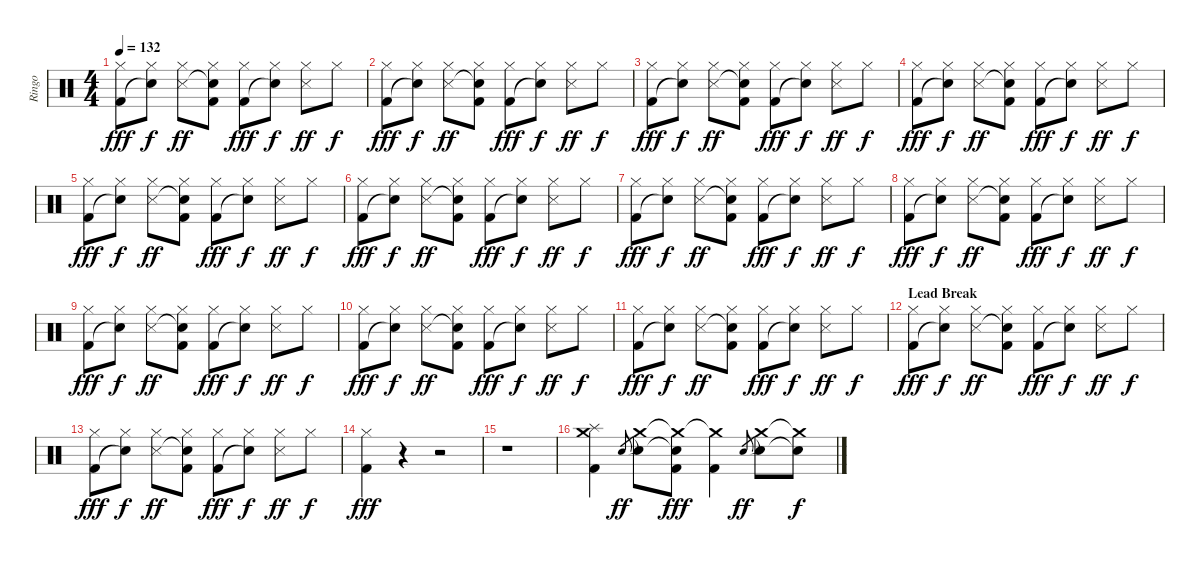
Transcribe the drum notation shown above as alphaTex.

\track ("Ringo" "Ringo") {instrument percussion}
\staff {score}
\articulation defaults
\ts (4 4)
\tempo 132
\clef neutral
\ks c
("Hi-Hat (closed)" "Kick (hit) 2").8{dy fff} ("Hi-Hat (closed)" "Snare (hit)"{t}).8{dy f} ("Hi-Hat (closed)" "Snare (side stick) 3").8{dy ff} ("Hi-Hat (closed)" "Snare (hit)"{t} "Kick (hit) 2").8 ("Hi-Hat (closed)" "Kick (hit) 2").8{dy fff} ("Hi-Hat (closed)" "Snare (hit)"{t}).8{dy f} ("Hi-Hat (closed)" "Snare (side stick) 3").8{dy ff} "Hi-Hat (closed)".8{dy f} |
("Hi-Hat (closed)" "Kick (hit) 2").8{dy fff} ("Hi-Hat (closed)" "Snare (hit)"{t}).8{dy f} ("Hi-Hat (closed)" "Snare (side stick) 3").8{dy ff} ("Hi-Hat (closed)" "Snare (hit)"{t} "Kick (hit) 2").8 ("Hi-Hat (closed)" "Kick (hit) 2").8{dy fff} ("Hi-Hat (closed)" "Snare (hit)"{t}).8{dy f} ("Hi-Hat (closed)" "Snare (side stick) 3").8{dy ff} "Hi-Hat (closed)".8{dy f} |
("Hi-Hat (closed)" "Kick (hit) 2").8{dy fff} ("Hi-Hat (closed)" "Snare (hit)"{t}).8{dy f} ("Hi-Hat (closed)" "Snare (side stick) 3").8{dy ff} ("Hi-Hat (closed)" "Snare (hit)"{t} "Kick (hit) 2").8 ("Hi-Hat (closed)" "Kick (hit) 2").8{dy fff} ("Hi-Hat (closed)" "Snare (hit)"{t}).8{dy f} ("Hi-Hat (closed)" "Snare (side stick) 3").8{dy ff} "Hi-Hat (closed)".8{dy f} |
("Hi-Hat (closed)" "Kick (hit) 2").8{dy fff} ("Hi-Hat (closed)" "Snare (hit)"{t}).8{dy f} ("Hi-Hat (closed)" "Snare (side stick) 3").8{dy ff} ("Hi-Hat (closed)" "Snare (hit)"{t} "Kick (hit) 2").8 ("Hi-Hat (closed)" "Kick (hit) 2").8{dy fff} ("Hi-Hat (closed)" "Snare (hit)"{t}).8{dy f} ("Hi-Hat (closed)" "Snare (side stick) 3").8{dy ff} "Hi-Hat (closed)".8{dy f} |
("Hi-Hat (closed)" "Kick (hit) 2").8{dy fff} ("Hi-Hat (closed)" "Snare (hit)"{t}).8{dy f} ("Hi-Hat (closed)" "Snare (side stick) 3").8{dy ff} ("Hi-Hat (closed)" "Snare (hit)"{t} "Kick (hit) 2").8 ("Hi-Hat (closed)" "Kick (hit) 2").8{dy fff} ("Hi-Hat (closed)" "Snare (hit)"{t}).8{dy f} ("Hi-Hat (closed)" "Snare (side stick) 3").8{dy ff} "Hi-Hat (closed)".8{dy f} |
("Hi-Hat (closed)" "Kick (hit) 2").8{dy fff} ("Hi-Hat (closed)" "Snare (hit)"{t}).8{dy f} ("Hi-Hat (closed)" "Snare (side stick) 3").8{dy ff} ("Hi-Hat (closed)" "Snare (hit)"{t} "Kick (hit) 2").8 ("Hi-Hat (closed)" "Kick (hit) 2").8{dy fff} ("Hi-Hat (closed)" "Snare (hit)"{t}).8{dy f} ("Hi-Hat (closed)" "Snare (side stick) 3").8{dy ff} "Hi-Hat (closed)".8{dy f} |
("Hi-Hat (closed)" "Kick (hit) 2").8{dy fff} ("Hi-Hat (closed)" "Snare (hit)"{t}).8{dy f} ("Hi-Hat (closed)" "Snare (side stick) 3").8{dy ff} ("Hi-Hat (closed)" "Snare (hit)"{t} "Kick (hit) 2").8 ("Hi-Hat (closed)" "Kick (hit) 2").8{dy fff} ("Hi-Hat (closed)" "Snare (hit)"{t}).8{dy f} ("Hi-Hat (closed)" "Snare (side stick) 3").8{dy ff} "Hi-Hat (closed)".8{dy f} |
("Hi-Hat (closed)" "Kick (hit) 2").8{dy fff} ("Hi-Hat (closed)" "Snare (hit)"{t}).8{dy f} ("Hi-Hat (closed)" "Snare (side stick) 3").8{dy ff} ("Hi-Hat (closed)" "Snare (hit)"{t} "Kick (hit) 2").8 ("Hi-Hat (closed)" "Kick (hit) 2").8{dy fff} ("Hi-Hat (closed)" "Snare (hit)"{t}).8{dy f} ("Hi-Hat (closed)" "Snare (side stick) 3").8{dy ff} "Hi-Hat (closed)".8{dy f} |
("Hi-Hat (closed)" "Kick (hit) 2").8{dy fff} ("Hi-Hat (closed)" "Snare (hit)"{t}).8{dy f} ("Hi-Hat (closed)" "Snare (side stick) 3").8{dy ff} ("Hi-Hat (closed)" "Snare (hit)"{t} "Kick (hit) 2").8 ("Hi-Hat (closed)" "Kick (hit) 2").8{dy fff} ("Hi-Hat (closed)" "Snare (hit)"{t}).8{dy f} ("Hi-Hat (closed)" "Snare (side stick) 3").8{dy ff} "Hi-Hat (closed)".8{dy f} |
("Hi-Hat (closed)" "Kick (hit) 2").8{dy fff} ("Hi-Hat (closed)" "Snare (hit)"{t}).8{dy f} ("Hi-Hat (closed)" "Snare (side stick) 3").8{dy ff} ("Hi-Hat (closed)" "Snare (hit)"{t} "Kick (hit) 2").8 ("Hi-Hat (closed)" "Kick (hit) 2").8{dy fff} ("Hi-Hat (closed)" "Snare (hit)"{t}).8{dy f} ("Hi-Hat (closed)" "Snare (side stick) 3").8{dy ff} "Hi-Hat (closed)".8{dy f} |
("Hi-Hat (closed)" "Kick (hit) 2").8{dy fff} ("Hi-Hat (closed)" "Snare (hit)"{t}).8{dy f} ("Hi-Hat (closed)" "Snare (side stick) 3").8{dy ff} ("Hi-Hat (closed)" "Snare (hit)"{t} "Kick (hit) 2").8 ("Hi-Hat (closed)" "Kick (hit) 2").8{dy fff} ("Hi-Hat (closed)" "Snare (hit)"{t}).8{dy f} ("Hi-Hat (closed)" "Snare (side stick) 3").8{dy ff} "Hi-Hat (closed)".8{dy f} |
\section ("" "Lead Break")
("Hi-Hat (closed)" "Kick (hit) 2").8{dy fff} ("Hi-Hat (closed)" "Snare (hit)"{t}).8{dy f} ("Hi-Hat (closed)" "Snare (side stick) 3").8{dy ff} ("Hi-Hat (closed)" "Snare (hit)"{t} "Kick (hit) 2").8 ("Hi-Hat (closed)" "Kick (hit) 2").8{dy fff} ("Hi-Hat (closed)" "Snare (hit)"{t}).8{dy f} ("Hi-Hat (closed)" "Snare (side stick) 3").8{dy ff} "Hi-Hat (closed)".8{dy f} |
("Hi-Hat (closed)" "Kick (hit) 2").8{dy fff} ("Hi-Hat (closed)" "Snare (hit)"{t}).8{dy f} ("Hi-Hat (closed)" "Snare (side stick) 3").8{dy ff} ("Hi-Hat (closed)" "Snare (hit)"{t} "Kick (hit) 2").8 ("Hi-Hat (closed)" "Kick (hit) 2").8{dy fff} ("Hi-Hat (closed)" "Snare (hit)"{t}).8{dy f} ("Hi-Hat (closed)" "Snare (side stick) 3").8{dy ff} "Hi-Hat (closed)".8{dy f} |
("Hi-Hat (closed)" "Kick (hit) 2").4{dy fff} r.4 r.2 |
r.1 |
("Crash medium (hit)" "Splash (hit)" "Kick (hit) 2").4 "Snare (hit) 2".8{gr dy ff} ("Crash medium (hit)"{t} "Snare (hit) 2").8 ("Crash medium (hit)"{t} "Snare (hit)"{t} "Kick (hit) 2").8{dy fff} ("Crash medium (hit)"{t} "Kick (hit) 2").4 "Snare (hit) 2".8{gr dy ff} ("Crash medium (hit)"{t} "Snare (hit) 2").8 ("Crash medium (hit)"{t} "Snare (hit) 2"{t}).8{dy f}
